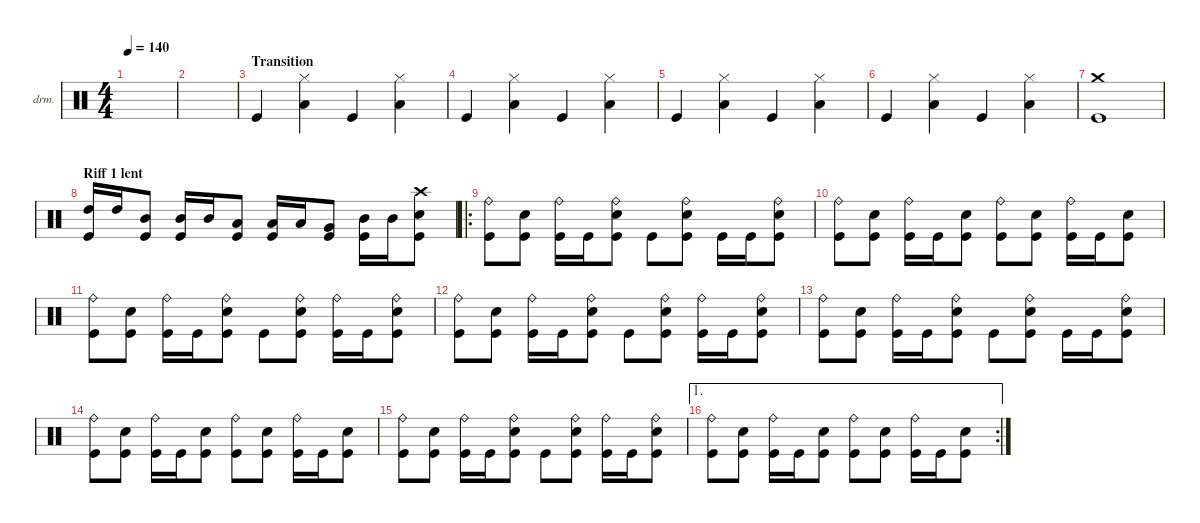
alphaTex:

\defaultSystemsLayout 4
\hideDynamics
\bracketExtendMode nobrackets
\firstSystemTrackNameOrientation horizontal
\otherSystemsTrackNameOrientation horizontal
\track ("Drumkit" "drm.") {instrument percussion}
\staff {score}
\articulation defaults
\ts (4 4)
\tempo 140
\clef neutral
\ks c
|
|
\section ("" "Transition")
"Kick (hit)".4 ("Hi-Hat (closed)" "Low Tom (hit)").4 "Kick (hit)".4 ("Hi-Hat (closed)" "Low Tom (hit)").4 |
"Kick (hit)".4 ("Hi-Hat (closed)" "Low Tom (hit)").4 "Kick (hit)".4 ("Hi-Hat (closed)" "Low Tom (hit)").4 |
"Kick (hit)".4 ("Hi-Hat (closed)" "Low Tom (hit)").4 "Kick (hit)".4 ("Hi-Hat (closed)" "Low Tom (hit)").4 |
"Kick (hit)".4 ("Hi-Hat (closed)" "Low Tom (hit)").4 "Kick (hit)".4 ("Hi-Hat (closed)" "Low Tom (hit)").4 |
("Crash medium (hit)" "Kick (hit)").1 |
\section ("" "Riff 1 lent")
("High Tom (hit)" "Kick (hit)").16 "High Tom (hit)".16 ("Mid Tom (hit)" "Kick (hit)").8 ("Mid Tom (hit)" "Kick (hit)").16 "Mid Tom (hit)".16 ("Low Tom (hit)" "Kick (hit)").8 ("Low Tom (hit)" "Kick (hit)").16 "Low Tom (hit)".16 ("Very Low Tom (hit)" "Kick (hit)").8 ("Kick (hit)" "Mid Tom (hit)").16 "Mid Tom (hit)".16 ("Snare (hit) 2" "Kick (hit)" "Crash high (hit)").8 |
\ro
("Kick (hit)" "Ride (bell)").8 ("Snare (hit) 2" "Kick (hit)").8 ("Kick (hit)" "Ride (bell)").16 "Kick (hit)".16 ("Snare (hit) 2" "Kick (hit)" "Ride (bell)").8 "Kick (hit)".8 ("Snare (hit) 2" "Kick (hit)" "Ride (bell)").8 "Kick (hit)".16 "Kick (hit)".16 ("Snare (hit) 2" "Kick (hit)" "Ride (bell)").8 |
("Kick (hit)" "Ride (bell)").8 ("Snare (hit) 2" "Kick (hit)").8 ("Kick (hit)" "Ride (bell)").16 "Kick (hit)".16 ("Snare (hit) 2" "Kick (hit)").8 ("Kick (hit)" "Ride (bell)").8 ("Snare (hit) 2" "Kick (hit)").8 ("Kick (hit)" "Ride (bell)").16 "Kick (hit)".16 ("Snare (hit) 2" "Kick (hit)").8 |
("Kick (hit)" "Ride (bell)").8 ("Snare (hit) 2" "Kick (hit)").8 ("Kick (hit)" "Ride (bell)").16 "Kick (hit)".16 ("Snare (hit) 2" "Kick (hit)" "Ride (bell)").8 "Kick (hit)".8 ("Snare (hit) 2" "Kick (hit)" "Ride (bell)").8 ("Kick (hit)" "Ride (bell)").16 "Kick (hit)".16 ("Snare (hit) 2" "Kick (hit)" "Ride (bell)").8 |
("Kick (hit)" "Ride (bell)").8 ("Snare (hit) 2" "Kick (hit)").8 ("Kick (hit)" "Ride (bell)").16 "Kick (hit)".16 ("Snare (hit) 2" "Kick (hit)" "Ride (bell)").8 "Kick (hit)".8 ("Snare (hit) 2" "Kick (hit)" "Ride (bell)").8 ("Kick (hit)" "Ride (bell)").16 "Kick (hit)".16 ("Snare (hit) 2" "Kick (hit)" "Ride (bell)").8 |
("Kick (hit)" "Ride (bell)").8 ("Snare (hit) 2" "Kick (hit)").8 ("Kick (hit)" "Ride (bell)").16 "Kick (hit)".16 ("Snare (hit) 2" "Kick (hit)" "Ride (bell)").8 "Kick (hit)".8 ("Snare (hit) 2" "Kick (hit)" "Ride (bell)").8 "Kick (hit)".16 "Kick (hit)".16 ("Snare (hit) 2" "Kick (hit)" "Ride (bell)").8 |
("Kick (hit)" "Ride (bell)").8 ("Snare (hit) 2" "Kick (hit)").8 ("Kick (hit)" "Ride (bell)").16 "Kick (hit)".16 ("Snare (hit) 2" "Kick (hit)").8 ("Kick (hit)" "Ride (bell)").8 ("Snare (hit) 2" "Kick (hit)").8 ("Kick (hit)" "Ride (bell)").16 "Kick (hit)".16 ("Snare (hit) 2" "Kick (hit)").8 |
("Kick (hit)" "Ride (bell)").8 ("Snare (hit) 2" "Kick (hit)").8 ("Kick (hit)" "Ride (bell)").16 "Kick (hit)".16 ("Snare (hit) 2" "Kick (hit)" "Ride (bell)").8 "Kick (hit)".8 ("Snare (hit) 2" "Kick (hit)" "Ride (bell)").8 ("Kick (hit)" "Ride (bell)").16 "Kick (hit)".16 ("Snare (hit) 2" "Kick (hit)" "Ride (bell)").8 |
\ae 1
\rc 2
("Kick (hit)" "Ride (bell)").8 ("Snare (hit) 2" "Kick (hit)").8 ("Kick (hit)" "Ride (bell)").16 "Kick (hit)".16 ("Snare (hit) 2" "Kick (hit)").8 ("Kick (hit)" "Ride (bell)").8 ("Snare (hit) 2" "Kick (hit)").8 ("Kick (hit)" "Ride (bell)").16 "Kick (hit)".16 ("Snare (hit) 2" "Kick (hit)").8
